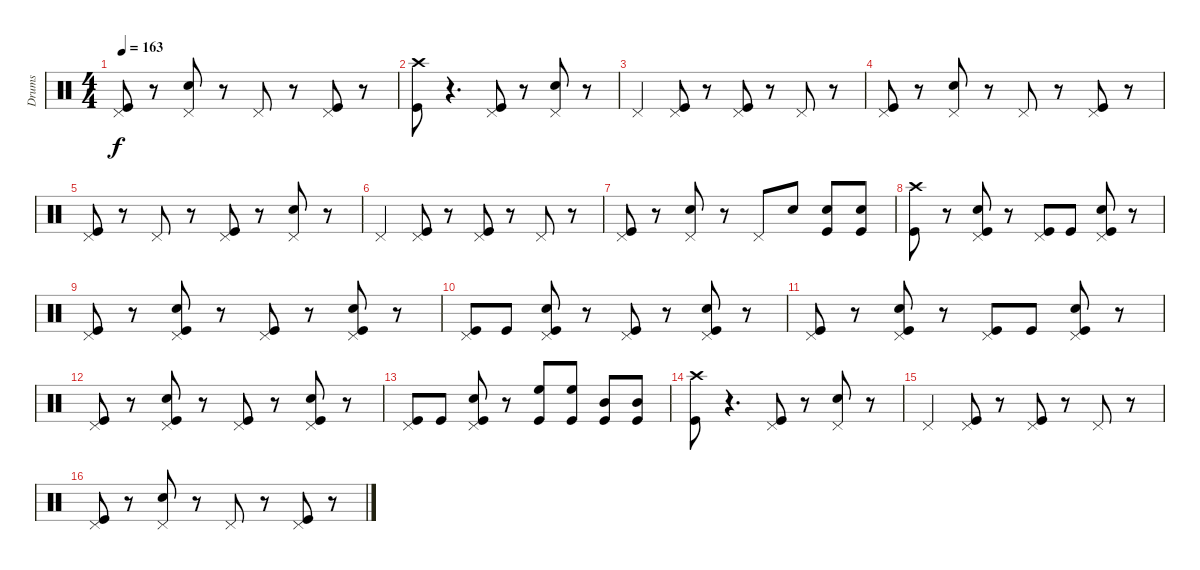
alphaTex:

\track ("Drums" "Drums") {instrument percussion}
\staff {score}
\articulation defaults
\ts (4 4)
\tempo 163
\clef neutral
\ks c
("Pedal Hi-Hat (hit)" "Kick (hit)").8{dy f} r.8 ("Pedal Hi-Hat (hit)" "Snare (hit) 2").8 r.8 "Pedal Hi-Hat (hit)".8 r.8 ("Pedal Hi-Hat (hit)" "Kick (hit)").8 r.8 |
("Crash high (hit)" "Kick (hit)").8 r.4{d} ("Pedal Hi-Hat (hit)" "Kick (hit)").8 r.8 ("Pedal Hi-Hat (hit)" "Snare (hit) 2").8 r.8 |
"Pedal Hi-Hat (hit)".4 ("Pedal Hi-Hat (hit)" "Kick (hit)").8 r.8 ("Pedal Hi-Hat (hit)" "Kick (hit)").8 r.8 "Pedal Hi-Hat (hit)".8 r.8 |
("Pedal Hi-Hat (hit)" "Kick (hit)").8 r.8 ("Pedal Hi-Hat (hit)" "Snare (hit) 2").8 r.8 "Pedal Hi-Hat (hit)".8 r.8 ("Pedal Hi-Hat (hit)" "Kick (hit)").8 r.8 |
("Pedal Hi-Hat (hit)" "Kick (hit)").8 r.8 "Pedal Hi-Hat (hit)".8 r.8 ("Pedal Hi-Hat (hit)" "Kick (hit)").8 r.8 ("Pedal Hi-Hat (hit)" "Snare (hit) 2").8 r.8 |
"Pedal Hi-Hat (hit)".4 ("Pedal Hi-Hat (hit)" "Kick (hit)").8 r.8 ("Pedal Hi-Hat (hit)" "Kick (hit)").8 r.8 "Pedal Hi-Hat (hit)".8 r.8 |
("Pedal Hi-Hat (hit)" "Kick (hit)").8 r.8 ("Pedal Hi-Hat (hit)" "Snare (hit) 2").8 r.8 "Pedal Hi-Hat (hit)".8 "Snare (hit) 2".8 ("Snare (hit) 2" "Kick (hit)").8 ("Snare (hit) 2" "Kick (hit)").8 |
("Crash high (hit)" "Kick (hit)").8 r.8 ("Pedal Hi-Hat (hit)" "Snare (hit) 2" "Kick (hit)").8 r.8 ("Pedal Hi-Hat (hit)" "Kick (hit)").8 "Kick (hit)".8 ("Pedal Hi-Hat (hit)" "Snare (hit) 2" "Kick (hit)").8 r.8 |
("Pedal Hi-Hat (hit)" "Kick (hit)").8 r.8 ("Pedal Hi-Hat (hit)" "Snare (hit) 2" "Kick (hit)").8 r.8 ("Pedal Hi-Hat (hit)" "Kick (hit)").8 r.8 ("Pedal Hi-Hat (hit)" "Snare (hit) 2" "Kick (hit)").8 r.8 |
("Pedal Hi-Hat (hit)" "Kick (hit)").8 "Kick (hit)".8 ("Pedal Hi-Hat (hit)" "Snare (hit) 2" "Kick (hit)").8 r.8 ("Pedal Hi-Hat (hit)" "Kick (hit)").8 r.8 ("Pedal Hi-Hat (hit)" "Snare (hit) 2" "Kick (hit)").8 r.8 |
("Pedal Hi-Hat (hit)" "Kick (hit)").8 r.8 ("Pedal Hi-Hat (hit)" "Snare (hit) 2" "Kick (hit)").8 r.8 ("Pedal Hi-Hat (hit)" "Kick (hit)").8 "Kick (hit)".8 ("Pedal Hi-Hat (hit)" "Snare (hit) 2" "Kick (hit)").8 r.8 |
("Pedal Hi-Hat (hit)" "Kick (hit)").8 r.8 ("Pedal Hi-Hat (hit)" "Snare (hit) 2" "Kick (hit)").8 r.8 ("Pedal Hi-Hat (hit)" "Kick (hit)").8 r.8 ("Pedal Hi-Hat (hit)" "Snare (hit) 2" "Kick (hit)").8 r.8 |
("Pedal Hi-Hat (hit)" "Kick (hit)").8 "Kick (hit)".8 ("Pedal Hi-Hat (hit)" "Snare (hit) 2" "Kick (hit)").8 r.8 ("High Floor Tom (hit)" "Kick (hit)").8 ("High Floor Tom (hit)" "Kick (hit)").8 ("Mid Tom (hit)" "Kick (hit)").8 ("Mid Tom (hit)" "Kick (hit)").8 |
("Crash high (hit)" "Kick (hit)").8 r.4{d} ("Pedal Hi-Hat (hit)" "Kick (hit)").8 r.8 ("Pedal Hi-Hat (hit)" "Snare (hit) 2").8 r.8 |
"Pedal Hi-Hat (hit)".4 ("Pedal Hi-Hat (hit)" "Kick (hit)").8 r.8 ("Pedal Hi-Hat (hit)" "Kick (hit)").8 r.8 "Pedal Hi-Hat (hit)".8 r.8 |
("Pedal Hi-Hat (hit)" "Kick (hit)").8 r.8 ("Pedal Hi-Hat (hit)" "Snare (hit) 2").8 r.8 "Pedal Hi-Hat (hit)".8 r.8 ("Pedal Hi-Hat (hit)" "Kick (hit)").8 r.8
